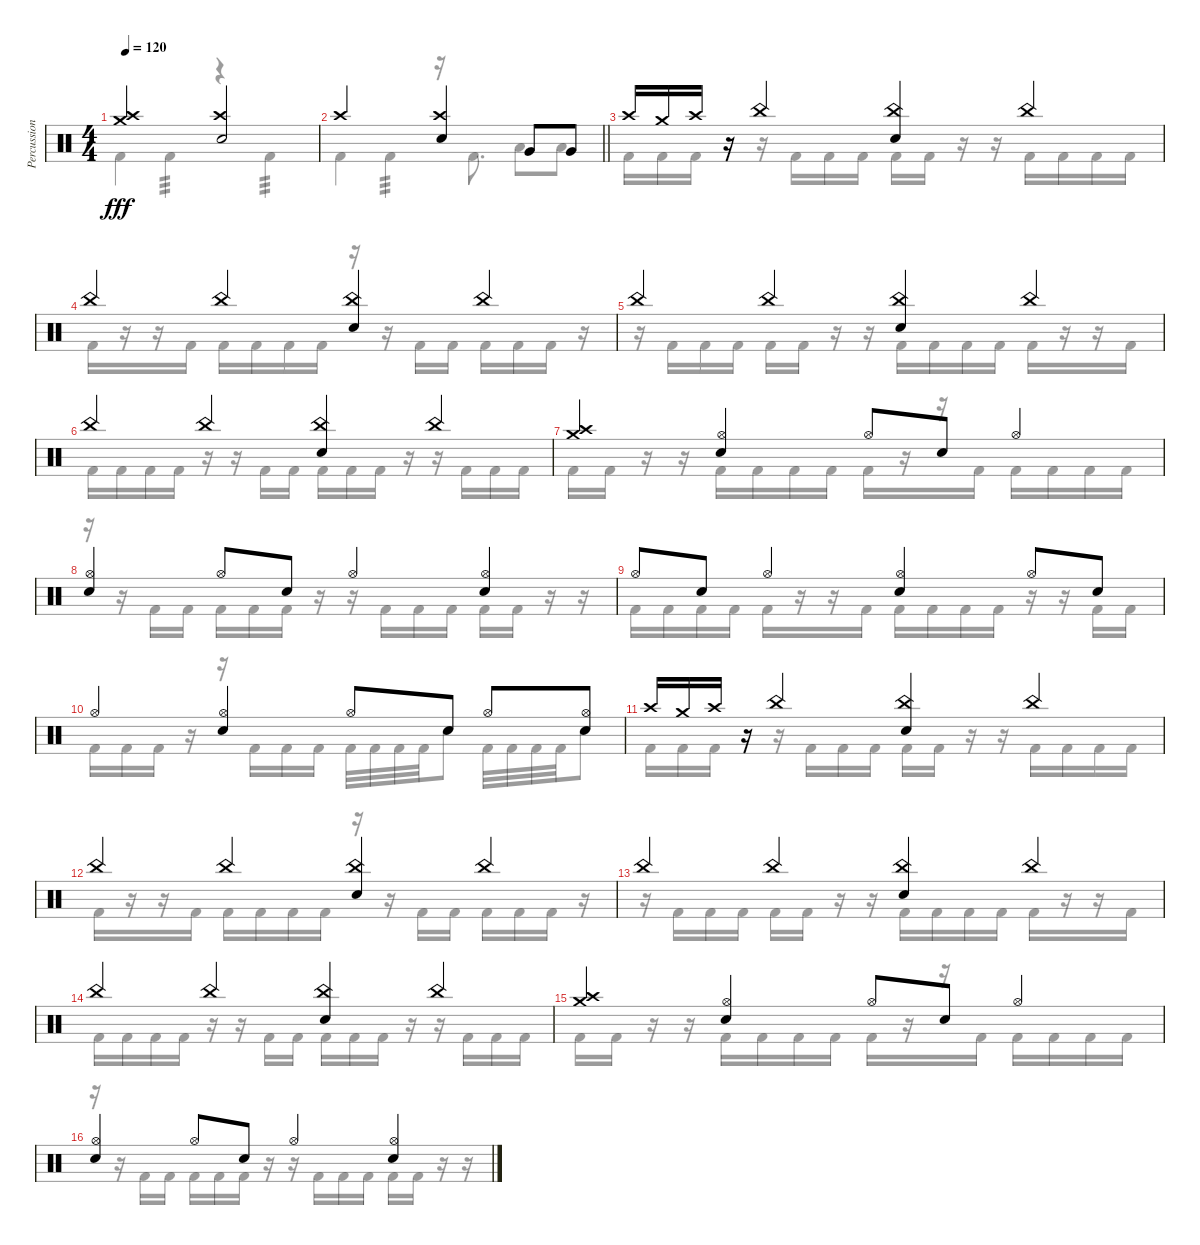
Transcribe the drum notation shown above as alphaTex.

\track ("Percussion" "Percussion") {instrument percussion}
\staff {score}
\articulation defaults
\voice
\ts (4 4)
\tempo 120
\clef neutral
\ks c
("Crash high (hit)" "Crash medium (hit)").2{dy fff} ("Crash high (hit)" "Snare (hit) 2").2 |
\barLineRight lightlight "Crash high (hit)".2
("Crash high (hit)" "Snare (hit) 2").4 "Very Low Tom (hit)".8 "Very Low Tom (hit)".8 |
"Crash high (hit)".16 "Crash medium (hit)".16 "Crash high (hit)".16 r.16 "China (hit)".4 ("China (hit)" "Electric Snare (hit)").4 "China (hit)".4 |
"China (hit)".4 "China (hit)".4 ("China (hit)" "Electric Snare (hit)").4 "China (hit)".4 |
"China (hit)".4 "China (hit)".4 ("China (hit)" "Electric Snare (hit)").4 "China (hit)".4 |
"China (hit)".4 "China (hit)".4 ("China (hit)" "Electric Snare (hit)").4 "China (hit)".4 |
("Crash high (hit)" "Crash medium (hit)").4 ("Hi-Hat (open)" "Electric Snare (hit)").4 "Hi-Hat (open)".8 "Electric Snare (hit)".8 "Hi-Hat (open)".4 |
("Hi-Hat (open)" "Electric Snare (hit)").4 "Hi-Hat (open)".8 "Electric Snare (hit)".8 "Hi-Hat (open)".4 ("Hi-Hat (open)" "Electric Snare (hit)").4 |
"Hi-Hat (open)".8 "Electric Snare (hit)".8 "Hi-Hat (open)".4 ("Hi-Hat (open)" "Electric Snare (hit)").4 "Hi-Hat (open)".8 "Electric Snare (hit)".8 |
"Hi-Hat (open)".4 ("Hi-Hat (open)" "Electric Snare (hit)").4 "Hi-Hat (open)".8 "Electric Snare (hit)".8 "Hi-Hat (open)".8 ("Hi-Hat (open)" "Electric Snare (hit)").8 |
"Crash high (hit)".16 "Crash medium (hit)".16 "Crash high (hit)".16 r.16 "China (hit)".4 ("China (hit)" "Electric Snare (hit)").4 "China (hit)".4 |
"China (hit)".4 "China (hit)".4 ("China (hit)" "Electric Snare (hit)").4 "China (hit)".4 |
"China (hit)".4 "China (hit)".4 ("China (hit)" "Electric Snare (hit)").4 "China (hit)".4 |
"China (hit)".4 "China (hit)".4 ("China (hit)" "Electric Snare (hit)").4 "China (hit)".4 |
("Crash high (hit)" "Crash medium (hit)").4 ("Hi-Hat (open)" "Electric Snare (hit)").4 "Hi-Hat (open)".8 "Electric Snare (hit)".8 "Hi-Hat (open)".4 |
("Hi-Hat (open)" "Electric Snare (hit)").4 "Hi-Hat (open)".8 "Electric Snare (hit)".8 "Hi-Hat (open)".4 ("Hi-Hat (open)" "Electric Snare (hit)").4
\voice
\clef neutral
\ottava regular
\simile none
\ks c "Kick (hit) 2".4{dy fff} "Kick (hit) 2".4{tp 3}
r.4 "Kick (hit) 2".4{tp 3} |
\barLineRight lightlight "Kick (hit) 2".4 "Kick (hit) 2".4{tp 3}
r.16 "Kick (hit) 2".8{d} "Low Floor Tom (hit)".8 "Low Floor Tom (hit)".8 |
"Kick (hit) 2".16 "Kick (hit) 2".16 "Kick (hit) 2".16 r.16 r.16 "Kick (hit) 2".16 "Kick (hit) 2".16 "Kick (hit) 2".16 "Kick (hit) 2".16 "Kick (hit) 2".16 r.16 r.16 "Kick (hit) 2".16 "Kick (hit) 2".16 "Kick (hit) 2".16 "Kick (hit) 2".16 |
"Kick (hit) 2".16 r.16 r.16 "Kick (hit) 2".16 "Kick (hit) 2".16 "Kick (hit) 2".16 "Kick (hit) 2".16 "Kick (hit) 2".16 r.16 r.16 "Kick (hit) 2".16 "Kick (hit) 2".16 "Kick (hit) 2".16 "Kick (hit) 2".16 "Kick (hit) 2".16 r.16 |
r.16 "Kick (hit) 2".16 "Kick (hit) 2".16 "Kick (hit) 2".16 "Kick (hit) 2".16 "Kick (hit) 2".16 r.16 r.16 "Kick (hit) 2".16 "Kick (hit) 2".16 "Kick (hit) 2".16 "Kick (hit) 2".16 "Kick (hit) 2".16 r.16 r.16 "Kick (hit) 2".16 |
"Kick (hit) 2".16 "Kick (hit) 2".16 "Kick (hit) 2".16 "Kick (hit) 2".16 r.16 r.16 "Kick (hit) 2".16 "Kick (hit) 2".16 "Kick (hit) 2".16 "Kick (hit) 2".16 "Kick (hit) 2".16 r.16 r.16 "Kick (hit) 2".16 "Kick (hit) 2".16 "Kick (hit) 2".16 |
"Kick (hit) 2".16 "Kick (hit) 2".16 r.16 r.16 "Kick (hit) 2".16 "Kick (hit) 2".16 "Kick (hit) 2".16 "Kick (hit) 2".16 "Kick (hit) 2".16 r.16 r.16 "Kick (hit) 2".16 "Kick (hit) 2".16 "Kick (hit) 2".16 "Kick (hit) 2".16 "Kick (hit) 2".16 |
r.16 r.16 "Kick (hit) 2".16 "Kick (hit) 2".16 "Kick (hit) 2".16 "Kick (hit) 2".16 "Kick (hit) 2".16 r.16 r.16 "Kick (hit) 2".16 "Kick (hit) 2".16 "Kick (hit) 2".16 "Kick (hit) 2".16 "Kick (hit) 2".16 r.16 r.16 |
"Kick (hit) 2".16 "Kick (hit) 2".16 "Kick (hit) 2".16 "Kick (hit) 2".16 "Kick (hit) 2".16 r.16 r.16 "Kick (hit) 2".16 "Kick (hit) 2".16 "Kick (hit) 2".16 "Kick (hit) 2".16 "Kick (hit) 2".16 r.16 r.16 "Kick (hit) 2".16 "Kick (hit) 2".16 |
"Kick (hit) 2".16 "Kick (hit) 2".16 "Kick (hit) 2".16 r.16 r.16 "Kick (hit) 2".16 "Kick (hit) 2".16 "Kick (hit) 2".16 "Kick (hit) 2".32 "Kick (hit) 2".32 "Kick (hit) 2".32 "Kick (hit) 2".32 "Electric Snare (hit)".8 "Kick (hit) 2".32 "Kick (hit) 2".32 "Kick (hit) 2".32 "Kick (hit) 2".32 "Electric Snare (hit)".8 |
"Kick (hit) 2".16 "Kick (hit) 2".16 "Kick (hit) 2".16 r.16 r.16 "Kick (hit) 2".16 "Kick (hit) 2".16 "Kick (hit) 2".16 "Kick (hit) 2".16 "Kick (hit) 2".16 r.16 r.16 "Kick (hit) 2".16 "Kick (hit) 2".16 "Kick (hit) 2".16 "Kick (hit) 2".16 |
"Kick (hit) 2".16 r.16 r.16 "Kick (hit) 2".16 "Kick (hit) 2".16 "Kick (hit) 2".16 "Kick (hit) 2".16 "Kick (hit) 2".16 r.16 r.16 "Kick (hit) 2".16 "Kick (hit) 2".16 "Kick (hit) 2".16 "Kick (hit) 2".16 "Kick (hit) 2".16 r.16 |
r.16 "Kick (hit) 2".16 "Kick (hit) 2".16 "Kick (hit) 2".16 "Kick (hit) 2".16 "Kick (hit) 2".16 r.16 r.16 "Kick (hit) 2".16 "Kick (hit) 2".16 "Kick (hit) 2".16 "Kick (hit) 2".16 "Kick (hit) 2".16 r.16 r.16 "Kick (hit) 2".16 |
"Kick (hit) 2".16 "Kick (hit) 2".16 "Kick (hit) 2".16 "Kick (hit) 2".16 r.16 r.16 "Kick (hit) 2".16 "Kick (hit) 2".16 "Kick (hit) 2".16 "Kick (hit) 2".16 "Kick (hit) 2".16 r.16 r.16 "Kick (hit) 2".16 "Kick (hit) 2".16 "Kick (hit) 2".16 |
"Kick (hit) 2".16 "Kick (hit) 2".16 r.16 r.16 "Kick (hit) 2".16 "Kick (hit) 2".16 "Kick (hit) 2".16 "Kick (hit) 2".16 "Kick (hit) 2".16 r.16 r.16 "Kick (hit) 2".16 "Kick (hit) 2".16 "Kick (hit) 2".16 "Kick (hit) 2".16 "Kick (hit) 2".16 |
r.16 r.16 "Kick (hit) 2".16 "Kick (hit) 2".16 "Kick (hit) 2".16 "Kick (hit) 2".16 "Kick (hit) 2".16 r.16 r.16 "Kick (hit) 2".16 "Kick (hit) 2".16 "Kick (hit) 2".16 "Kick (hit) 2".16 "Kick (hit) 2".16 r.16 r.16
